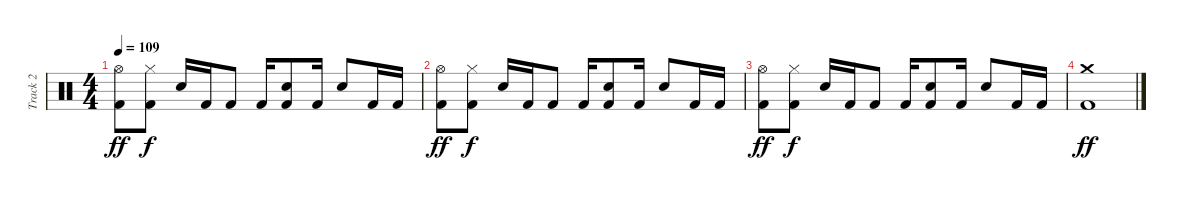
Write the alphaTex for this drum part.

\track ("Track 2" "Track 2") {instrument percussion}
\staff {score}
\articulation defaults
\ts (4 4)
\tempo 109
\clef neutral
\ks c
("Hi-Hat (open)" "Kick (hit) 2").8{dy ff} ("Hi-Hat (closed)" "Kick (hit) 2").8{dy f} "Electric Snare (hit)".16 "Kick (hit) 2".16 "Kick (hit) 2".8 "Kick (hit) 2".16 ("Electric Snare (hit)" "Kick (hit) 2").8 "Kick (hit) 2".16 "Electric Snare (hit)".8 "Kick (hit) 2".16 "Kick (hit) 2".16 |
("Hi-Hat (open)" "Kick (hit) 2").8{dy ff} ("Hi-Hat (closed)" "Kick (hit) 2").8{dy f} "Electric Snare (hit)".16 "Kick (hit) 2".16 "Kick (hit) 2".8 "Kick (hit) 2".16 ("Electric Snare (hit)" "Kick (hit) 2").8 "Kick (hit) 2".16 "Electric Snare (hit)".8 "Kick (hit) 2".16 "Kick (hit) 2".16 |
("Hi-Hat (open)" "Kick (hit) 2").8{dy ff} ("Hi-Hat (closed)" "Kick (hit) 2").8{dy f} "Electric Snare (hit)".16 "Kick (hit) 2".16 "Kick (hit) 2".8 "Kick (hit) 2".16 ("Electric Snare (hit)" "Kick (hit) 2").8 "Kick (hit) 2".16 "Electric Snare (hit)".8 "Kick (hit) 2".16 "Kick (hit) 2".16 |
("Crash medium (hit)" "Kick (hit) 2").1{dy ff}
